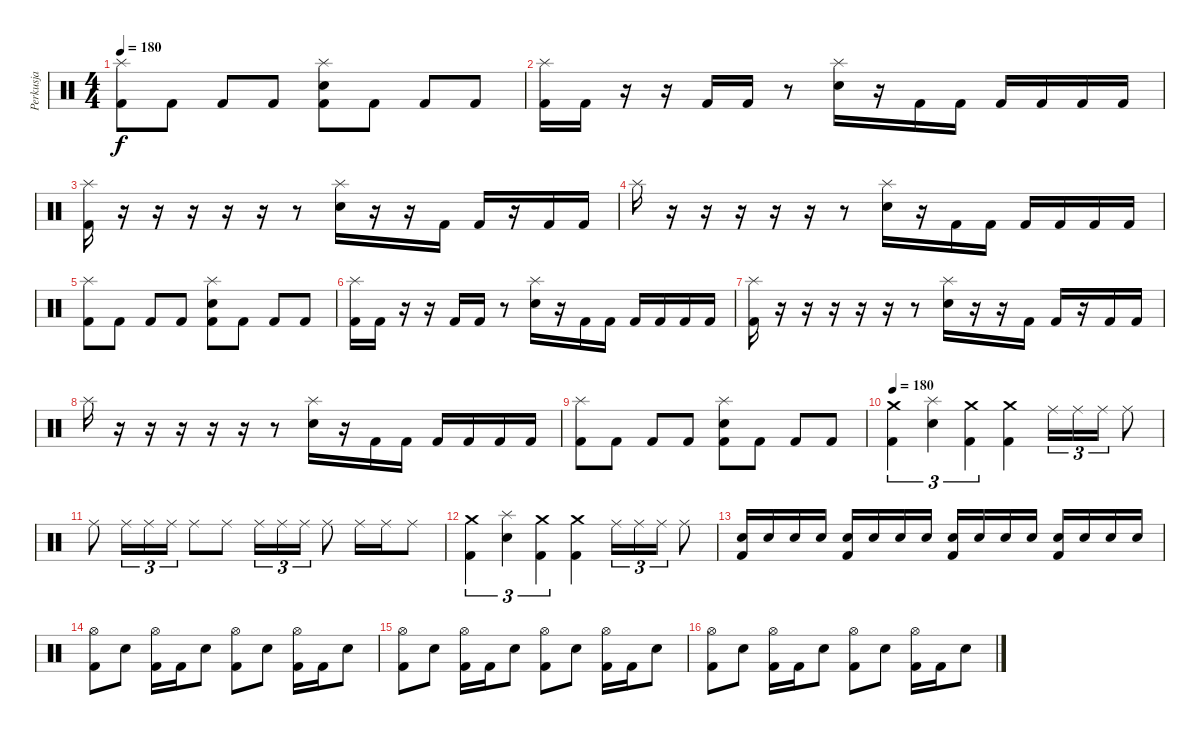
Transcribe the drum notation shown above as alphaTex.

\track ("Perkusja" "Perkusja") {instrument percussion}
\staff {score}
\articulation defaults
\ts (4 4)
\tempo 180
\clef neutral
\ks c
("Splash (hit)" "Kick (hit) 2").8{dy f} "Kick (hit) 2".8 "Kick (hit) 2".8 "Kick (hit) 2".8 ("Splash (hit)" "Electric Snare (hit)" "Kick (hit) 2").8 "Kick (hit) 2".8 "Kick (hit) 2".8 "Kick (hit) 2".8 |
("Splash (hit)" "Kick (hit) 2").16 "Kick (hit) 2".16 r.16 r.16 "Kick (hit) 2".16 "Kick (hit) 2".16 r.8 ("Splash (hit)" "Electric Snare (hit)").16 r.16 "Kick (hit) 2".16 "Kick (hit) 2".16 "Kick (hit) 2".16 "Kick (hit) 2".16 "Kick (hit) 2".16 "Kick (hit) 2".16 |
("Splash (hit)" "Kick (hit) 2").16 r.16 r.16 r.16 r.16 r.16 r.8 ("Splash (hit)" "Electric Snare (hit)").16 r.16 r.16 "Kick (hit) 2".16 "Kick (hit) 2".16 r.16 "Kick (hit) 2".16 "Kick (hit) 2".16 |
"Splash (hit)".16 r.16 r.16 r.16 r.16 r.16 r.8 ("Splash (hit)" "Electric Snare (hit)").16 r.16 "Kick (hit) 2".16 "Kick (hit) 2".16 "Kick (hit) 2".16 "Kick (hit) 2".16 "Kick (hit) 2".16 "Kick (hit) 2".16 |
("Splash (hit)" "Kick (hit) 2").8 "Kick (hit) 2".8 "Kick (hit) 2".8 "Kick (hit) 2".8 ("Splash (hit)" "Electric Snare (hit)" "Kick (hit) 2").8 "Kick (hit) 2".8 "Kick (hit) 2".8 "Kick (hit) 2".8 |
("Splash (hit)" "Kick (hit) 2").16 "Kick (hit) 2".16 r.16 r.16 "Kick (hit) 2".16 "Kick (hit) 2".16 r.8 ("Splash (hit)" "Electric Snare (hit)").16 r.16 "Kick (hit) 2".16 "Kick (hit) 2".16 "Kick (hit) 2".16 "Kick (hit) 2".16 "Kick (hit) 2".16 "Kick (hit) 2".16 |
("Splash (hit)" "Kick (hit) 2").16 r.16 r.16 r.16 r.16 r.16 r.8 ("Splash (hit)" "Electric Snare (hit)").16 r.16 r.16 "Kick (hit) 2".16 "Kick (hit) 2".16 r.16 "Kick (hit) 2".16 "Kick (hit) 2".16 |
"Splash (hit)".16 r.16 r.16 r.16 r.16 r.16 r.8 ("Splash (hit)" "Electric Snare (hit)").16 r.16 "Kick (hit) 2".16 "Kick (hit) 2".16 "Kick (hit) 2".16 "Kick (hit) 2".16 "Kick (hit) 2".16 "Kick (hit) 2".16 |
("Splash (hit)" "Kick (hit) 2").8 "Kick (hit) 2".8 "Kick (hit) 2".8 "Kick (hit) 2".8 ("Splash (hit)" "Electric Snare (hit)" "Kick (hit) 2").8 "Kick (hit) 2".8 "Kick (hit) 2".8 "Kick (hit) 2".8 |
\tempo 180
("Crash medium (hit)" "Kick (hit) 2").4{tu (3 2)} ("Splash (hit)" "Electric Snare (hit)").4{tu (3 2)} ("Crash medium (hit)" "Kick (hit) 2").4{tu (3 2)} ("Crash medium (hit)" "Kick (hit) 2").4 "Ride (middle)".16{tu (3 2)} "Ride (middle)".16{tu (3 2)} "Ride (middle)".16{tu (3 2)} "Ride (middle)".8 |
"Ride (middle)".8 "Ride (middle)".16{tu (3 2)} "Ride (middle)".16{tu (3 2)} "Ride (middle)".16{tu (3 2)} "Ride (middle)".8 "Ride (middle)".8 "Ride (middle)".16{tu (3 2)} "Ride (middle)".16{tu (3 2)} "Ride (middle)".16{tu (3 2)} "Ride (middle)".8 "Ride (middle)".16 "Ride (middle)".16 "Ride (middle)".8 |
("Crash medium (hit)" "Kick (hit) 2").4{tu (3 2)} ("Splash (hit)" "Electric Snare (hit)").4{tu (3 2)} ("Crash medium (hit)" "Kick (hit) 2").4{tu (3 2)} ("Crash medium (hit)" "Kick (hit) 2").4 "Ride (middle)".16{tu (3 2)} "Ride (middle)".16{tu (3 2)} "Ride (middle)".16{tu (3 2)} "Ride (middle)".8 |
("Electric Snare (hit)" "Kick (hit) 2").16 "Electric Snare (hit)".16 "Electric Snare (hit)".16 "Electric Snare (hit)".16 ("Electric Snare (hit)" "Kick (hit) 2").16 "Electric Snare (hit)".16 "Electric Snare (hit)".16 "Electric Snare (hit)".16 ("Electric Snare (hit)" "Kick (hit) 2").16 "Electric Snare (hit)".16 "Electric Snare (hit)".16 "Electric Snare (hit)".16 ("Electric Snare (hit)" "Kick (hit) 2").16 "Electric Snare (hit)".16 "Electric Snare (hit)".16 "Electric Snare (hit)".16 |
("Hi-Hat (open)" "Kick (hit) 2").8 "Electric Snare (hit)".8 ("Hi-Hat (open)" "Kick (hit) 2").16 "Kick (hit) 2".16 "Electric Snare (hit)".8 ("Hi-Hat (open)" "Kick (hit) 2").8 "Electric Snare (hit)".8 ("Hi-Hat (open)" "Kick (hit) 2").16 "Kick (hit) 2".16 "Electric Snare (hit)".8 |
("Hi-Hat (open)" "Kick (hit) 2").8 "Electric Snare (hit)".8 ("Hi-Hat (open)" "Kick (hit) 2").16 "Kick (hit) 2".16 "Electric Snare (hit)".8 ("Hi-Hat (open)" "Kick (hit) 2").8 "Electric Snare (hit)".8 ("Hi-Hat (open)" "Kick (hit) 2").16 "Kick (hit) 2".16 "Electric Snare (hit)".8 |
("Hi-Hat (open)" "Kick (hit) 2").8 "Electric Snare (hit)".8 ("Hi-Hat (open)" "Kick (hit) 2").16 "Kick (hit) 2".16 "Electric Snare (hit)".8 ("Hi-Hat (open)" "Kick (hit) 2").8 "Electric Snare (hit)".8 ("Hi-Hat (open)" "Kick (hit) 2").16 "Kick (hit) 2".16 "Electric Snare (hit)".8
